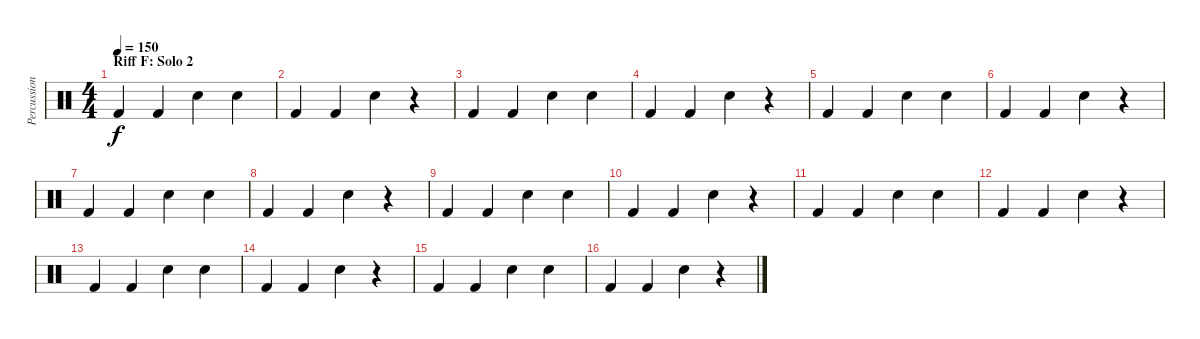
\track ("Percussion" "Percussion") {instrument percussion}
\staff {score}
\articulation defaults
\ts (4 4)
\section ("" "Riff F: Solo 2")
\tempo 150
\clef neutral
\ks c "Kick (hit) 2".4{dy f} "Kick (hit) 2".4 "Electric Snare (hit)".4 "Snare (hit) 2".4
|
"Kick (hit) 2".4 "Kick (hit) 2".4 "Snare (hit) 2".4 r.4 |
"Kick (hit) 2".4 "Kick (hit) 2".4 "Electric Snare (hit)".4 "Snare (hit) 2".4 |
"Kick (hit) 2".4 "Kick (hit) 2".4 "Snare (hit) 2".4 r.4 |
"Kick (hit) 2".4 "Kick (hit) 2".4 "Electric Snare (hit)".4 "Snare (hit) 2".4 |
"Kick (hit) 2".4 "Kick (hit) 2".4 "Snare (hit) 2".4 r.4 |
"Kick (hit) 2".4 "Kick (hit) 2".4 "Electric Snare (hit)".4 "Snare (hit) 2".4 |
"Kick (hit) 2".4 "Kick (hit) 2".4 "Snare (hit) 2".4 r.4 |
"Kick (hit) 2".4 "Kick (hit) 2".4 "Electric Snare (hit)".4 "Snare (hit) 2".4 |
"Kick (hit) 2".4 "Kick (hit) 2".4 "Snare (hit) 2".4 r.4 |
"Kick (hit) 2".4 "Kick (hit) 2".4 "Electric Snare (hit)".4 "Snare (hit) 2".4 |
"Kick (hit) 2".4 "Kick (hit) 2".4 "Snare (hit) 2".4 r.4 |
"Kick (hit) 2".4 "Kick (hit) 2".4 "Electric Snare (hit)".4 "Snare (hit) 2".4 |
"Kick (hit) 2".4 "Kick (hit) 2".4 "Snare (hit) 2".4 r.4 |
"Kick (hit) 2".4 "Kick (hit) 2".4 "Electric Snare (hit)".4 "Snare (hit) 2".4 |
"Kick (hit) 2".4 "Kick (hit) 2".4 "Snare (hit) 2".4 r.4
